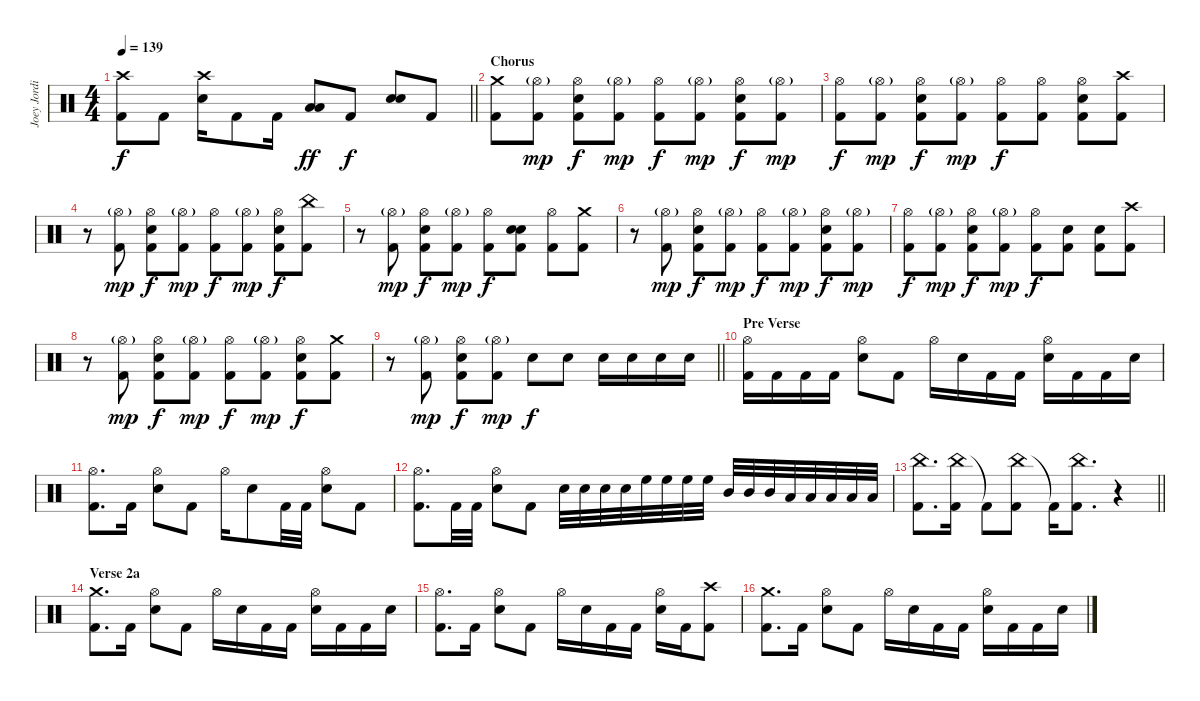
\track ("Joey Jordison" "Joey Jordi") {instrument percussion}
\staff {score}
\articulation defaults
\ts (4 4)
\tempo 139
\clef neutral
\barLineRight lightlight
\ks c
("Crash high (hit)" "Kick (hit) 2").8{dy f} "Kick (hit) 2".8 ("Crash high (hit)" "Electric Snare (hit)").16 "Kick (hit) 2".8 "Kick (hit) 2".16 ("Low Tom (hit)" "Low Floor Tom (hit)").8{dy ff} "Kick (hit) 2".8{dy f} ("Electric Snare (hit)" "Electric Snare (hit)").8{bd 240} "Kick (hit) 2".8 |
\section ("" "Chorus")
("Crash medium (hit)" "Kick (hit) 2").8 ("Hi-Hat (open)"{g} "Kick (hit) 2").8{dy mp} ("Hi-Hat (open)" "Electric Snare (hit)" "Kick (hit) 2").8{dy f} ("Hi-Hat (open)"{g} "Kick (hit) 2").8{dy mp} ("Hi-Hat (open)" "Kick (hit) 2").8{dy f} ("Hi-Hat (open)"{g} "Kick (hit) 2").8{dy mp} ("Hi-Hat (open)" "Electric Snare (hit)" "Kick (hit) 2").8{dy f} ("Hi-Hat (open)"{g} "Kick (hit) 2").8{dy mp} |
("Hi-Hat (open)" "Kick (hit) 2").8{dy f} ("Hi-Hat (open)"{g} "Kick (hit) 2").8{dy mp} ("Hi-Hat (open)" "Electric Snare (hit)" "Kick (hit) 2").8{dy f} ("Hi-Hat (open)"{g} "Kick (hit) 2").8{dy mp} ("Hi-Hat (open)" "Kick (hit) 2").8{dy f} ("Hi-Hat (open)" "Kick (hit) 2").8 ("Hi-Hat (open)" "Electric Snare (hit)" "Kick (hit) 2").8 ("Crash high (hit)" "Kick (hit) 2").8 |
r.8 ("Hi-Hat (open)"{g} "Kick (hit) 2").8{dy mp} ("Hi-Hat (open)" "Electric Snare (hit)" "Kick (hit) 2").8{dy f} ("Hi-Hat (open)"{g} "Kick (hit) 2").8{dy mp} ("Hi-Hat (open)" "Kick (hit) 2").8{dy f} ("Hi-Hat (open)"{g} "Kick (hit) 2").8{dy mp} ("Hi-Hat (open)" "Electric Snare (hit)" "Kick (hit) 2").8{dy f} ("China (hit)" "Kick (hit) 2").8 |
r.8 ("Hi-Hat (open)"{g} "Kick (hit) 2").8{dy mp} ("Hi-Hat (open)" "Electric Snare (hit)" "Kick (hit) 2").8{dy f} ("Hi-Hat (open)"{g} "Kick (hit) 2").8{dy mp} ("Hi-Hat (open)" "Kick (hit) 2").8{dy f} ("Electric Snare (hit)" "Electric Snare (hit)" "Kick (hit) 2").8{bd 240} ("Hi-Hat (open)" "Kick (hit) 2").8 ("Crash medium (hit)" "Kick (hit) 2").8 |
r.8 ("Hi-Hat (open)"{g} "Kick (hit) 2").8{dy mp} ("Hi-Hat (open)" "Electric Snare (hit)" "Kick (hit) 2").8{dy f} ("Hi-Hat (open)"{g} "Kick (hit) 2").8{dy mp} ("Hi-Hat (open)" "Kick (hit) 2").8{dy f} ("Hi-Hat (open)"{g} "Kick (hit) 2").8{dy mp} ("Hi-Hat (open)" "Electric Snare (hit)" "Kick (hit) 2").8{dy f} ("Hi-Hat (open)"{g} "Kick (hit) 2").8{dy mp} |
("Hi-Hat (open)" "Kick (hit) 2").8{dy f} ("Hi-Hat (open)"{g} "Kick (hit) 2").8{dy mp} ("Hi-Hat (open)" "Electric Snare (hit)" "Kick (hit) 2").8{dy f} ("Hi-Hat (open)"{g} "Kick (hit) 2").8{dy mp} ("Hi-Hat (open)" "Kick (hit) 2").8{dy f} ("Electric Snare (hit)" "Kick (hit) 2").8 ("Electric Snare (hit)" "Kick (hit) 2").8 ("Crash high (hit)" "Kick (hit) 2").8 |
r.8 ("Hi-Hat (open)"{g} "Kick (hit) 2").8{dy mp} ("Hi-Hat (open)" "Electric Snare (hit)" "Kick (hit) 2").8{dy f} ("Hi-Hat (open)"{g} "Kick (hit) 2").8{dy mp} ("Hi-Hat (open)" "Kick (hit) 2").8{dy f} ("Hi-Hat (open)"{g} "Kick (hit) 2").8{dy mp} ("Hi-Hat (open)" "Electric Snare (hit)" "Kick (hit) 2").8{dy f} ("Crash medium (hit)" "Kick (hit) 2").8 |
\barLineRight lightlight
r.8 ("Hi-Hat (open)"{g} "Kick (hit) 2").8{dy mp} ("Hi-Hat (open)" "Electric Snare (hit)" "Kick (hit) 2").8{dy f} ("Hi-Hat (open)"{g} "Kick (hit) 2").8{dy mp} "Electric Snare (hit)".8{dy f} "Electric Snare (hit)".8 "Electric Snare (hit)".16 "Electric Snare (hit)".16 "Electric Snare (hit)".16 "Electric Snare (hit)".16 |
\section ("" "Pre Verse")
("Hi-Hat (open)" "Kick (hit) 2").16 "Kick (hit) 2".16 "Kick (hit) 2".16 "Kick (hit) 2".16 ("Hi-Hat (open)" "Electric Snare (hit)").8 "Kick (hit) 2".8 "Hi-Hat (open)".16 "Electric Snare (hit)".16 "Kick (hit) 2".16 "Kick (hit) 2".16 ("Hi-Hat (open)" "Electric Snare (hit)").16 "Kick (hit) 2".16 "Kick (hit) 2".16 "Electric Snare (hit)".16 |
("Hi-Hat (open)" "Kick (hit) 2").8{d} "Kick (hit) 2".16 ("Hi-Hat (open)" "Electric Snare (hit)").8 "Kick (hit) 2".8 "Hi-Hat (open)".16 "Electric Snare (hit)".8 "Kick (hit) 2".32 "Kick (hit) 2".32 ("Hi-Hat (open)" "Electric Snare (hit)").8 "Kick (hit) 2".8 |
("Hi-Hat (open)" "Kick (hit) 2").8{d} "Kick (hit) 2".32 "Kick (hit) 2".32 ("Hi-Hat (open)" "Electric Snare (hit)").8 "Kick (hit) 2".8 "Electric Snare (hit)".32 "Electric Snare (hit)".32 "Electric Snare (hit)".32 "Electric Snare (hit)".32 "High Floor Tom (hit)".32 "High Floor Tom (hit)".32 "High Floor Tom (hit)".32 "High Floor Tom (hit)".32 "Mid Tom (hit)".32 "Mid Tom (hit)".32 "Mid Tom (hit)".32 "Low Tom (hit)".32 "Low Tom (hit)".32 "Low Floor Tom (hit)".32 "Low Floor Tom (hit)".32 "Low Floor Tom (hit)".32 |
\barLineRight lightlight
("China (hit)" "Kick (hit) 2").8{d} ("China (hit)" "Kick (hit) 2").16 "Kick (hit) 2"{t}.8 ("China (hit)" "Kick (hit) 2").8 "Kick (hit) 2"{t}.16 ("China (hit)" "Kick (hit) 2").8{d} r.4 |
\section ("" "Verse 2a")
("Crash medium (hit)" "Kick (hit) 2").8{d} "Kick (hit) 2".16 ("Hi-Hat (open)" "Electric Snare (hit)").8 "Kick (hit) 2".8 "Hi-Hat (open)".16 "Electric Snare (hit)".16 "Kick (hit) 2".16 "Kick (hit) 2".16 ("Hi-Hat (open)" "Electric Snare (hit)").16 "Kick (hit) 2".16 "Kick (hit) 2".16 "Electric Snare (hit)".16 |
("Hi-Hat (open)" "Kick (hit) 2").8{d} "Kick (hit) 2".16 ("Hi-Hat (open)" "Electric Snare (hit)").8 "Kick (hit) 2".8 "Hi-Hat (open)".16 "Electric Snare (hit)".16 "Kick (hit) 2".16 "Kick (hit) 2".16 ("Hi-Hat (open)" "Electric Snare (hit)").16 "Kick (hit) 2".16 ("Crash high (hit)" "Kick (hit) 2").8 |
("Crash medium (hit)" "Kick (hit) 2").8{d} "Kick (hit) 2".16 ("Hi-Hat (open)" "Electric Snare (hit)").8 "Kick (hit) 2".8 "Hi-Hat (open)".16 "Electric Snare (hit)".16 "Kick (hit) 2".16 "Kick (hit) 2".16 ("Hi-Hat (open)" "Electric Snare (hit)").16 "Kick (hit) 2".16 "Kick (hit) 2".16 "Electric Snare (hit)".16
